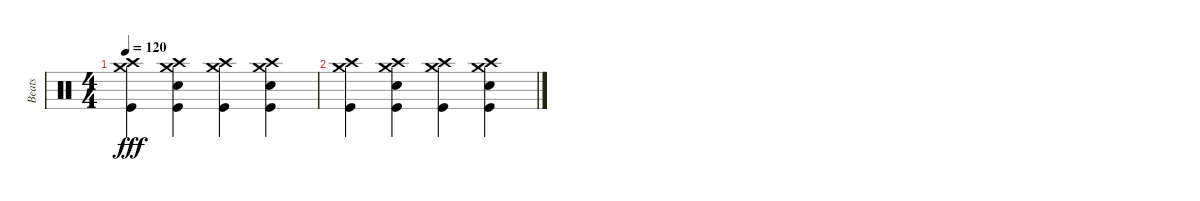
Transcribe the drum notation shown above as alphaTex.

\track ("Beats" "Beats") {instrument percussion}
\staff {score}
\articulation defaults
\ts (4 4)
\tempo 120
\clef neutral
\ks c
("Crash medium (hit)" "Crash high (hit)" "Kick (hit)").4{dy fff} ("Crash medium (hit)" "Crash high (hit)" "Electric Snare (hit)" "Kick (hit)").4 ("Crash medium (hit)" "Crash high (hit)" "Kick (hit)").4 ("Crash medium (hit)" "Crash high (hit)" "Electric Snare (hit)" "Kick (hit)").4 |
("Crash medium (hit)" "Crash high (hit)" "Kick (hit)").4 ("Crash medium (hit)" "Crash high (hit)" "Electric Snare (hit)" "Kick (hit)").4 ("Crash medium (hit)" "Crash high (hit)" "Kick (hit)").4 ("Crash medium (hit)" "Crash high (hit)" "Electric Snare (hit)" "Kick (hit)").4
